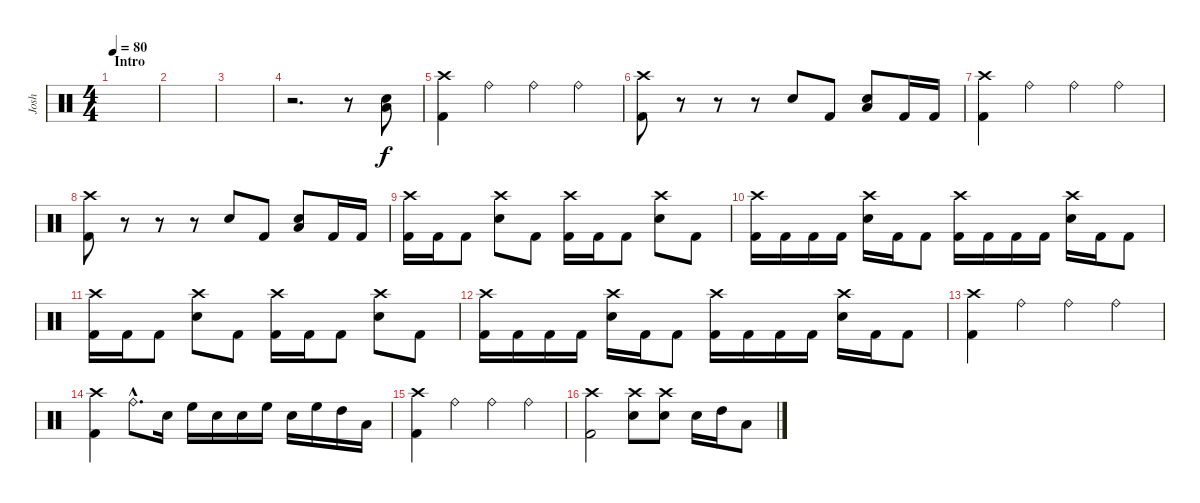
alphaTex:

\track ("Josh" "Josh") {instrument percussion}
\staff {score}
\articulation defaults
\ts (4 4)
\section ("" "Intro")
\tempo 80
\clef neutral
\ks c
|
|
|
r.2{d} r.8 ("Electric Snare (hit)" "Low Floor Tom (hit)").8 |
("Crash high (hit)" "Kick (hit) 2").4 "Ride (bell)".4 "Ride (bell)".4 "Ride (bell)".4 |
("Crash high (hit)" "Kick (hit) 2").8 r.8 r.8 r.8 "Electric Snare (hit)".8 "Kick (hit) 2".8 ("Electric Snare (hit)" "Low Floor Tom (hit)").8 "Kick (hit) 2".16 "Kick (hit) 2".16 |
("Crash high (hit)" "Kick (hit) 2").4 "Ride (bell)".4 "Ride (bell)".4 "Ride (bell)".4 |
("Crash high (hit)" "Kick (hit) 2").8 r.8 r.8 r.8 "Electric Snare (hit)".8 "Kick (hit) 2".8 ("Electric Snare (hit)" "Low Floor Tom (hit)").8 "Kick (hit) 2".16 "Kick (hit) 2".16 |
("Crash high (hit)" "Kick (hit) 2").16 "Kick (hit) 2".16 "Kick (hit) 2".8 ("Crash high (hit)" "Electric Snare (hit)").8 "Kick (hit) 2".8 ("Crash high (hit)" "Kick (hit) 2").16 "Kick (hit) 2".16 "Kick (hit) 2".8 ("Crash high (hit)" "Electric Snare (hit)").8 "Kick (hit) 2".8 |
("Crash high (hit)" "Kick (hit) 2").16 "Kick (hit) 2".16 "Kick (hit) 2".16 "Kick (hit) 2".16 ("Crash high (hit)" "Electric Snare (hit)").16 "Kick (hit) 2".16 "Kick (hit) 2".8 ("Crash high (hit)" "Kick (hit) 2").16 "Kick (hit) 2".16 "Kick (hit) 2".16 "Kick (hit) 2".16 ("Crash high (hit)" "Electric Snare (hit)").16 "Kick (hit) 2".16 "Kick (hit) 2".8 |
("Crash high (hit)" "Kick (hit) 2").16 "Kick (hit) 2".16 "Kick (hit) 2".8 ("Crash high (hit)" "Electric Snare (hit)").8 "Kick (hit) 2".8 ("Crash high (hit)" "Kick (hit) 2").16 "Kick (hit) 2".16 "Kick (hit) 2".8 ("Crash high (hit)" "Electric Snare (hit)").8 "Kick (hit) 2".8 |
("Crash high (hit)" "Kick (hit) 2").16 "Kick (hit) 2".16 "Kick (hit) 2".16 "Kick (hit) 2".16 ("Crash high (hit)" "Electric Snare (hit)").16 "Kick (hit) 2".16 "Kick (hit) 2".8 ("Crash high (hit)" "Kick (hit) 2").16 "Kick (hit) 2".16 "Kick (hit) 2".16 "Kick (hit) 2".16 ("Crash high (hit)" "Electric Snare (hit)").16 "Kick (hit) 2".16 "Kick (hit) 2".8 |
("Crash high (hit)" "Kick (hit) 2").4 "Ride (bell)".4 "Ride (bell)".4 "Ride (bell)".4 |
("Crash high (hit)" "Kick (hit) 2").4 "Ride (bell)"{hac}.8{d} "Electric Snare (hit)".16 "High Floor Tom (hit)".16 "Electric Snare (hit)".16 "Electric Snare (hit)".16 "High Floor Tom (hit)".16 "Electric Snare (hit)".16 "High Floor Tom (hit)".16 "High Tom (hit)".16 "Low Floor Tom (hit)".16 |
("Crash high (hit)" "Kick (hit) 2").4 "Ride (bell)".4 "Ride (bell)".4 "Ride (bell)".4 |
("Crash high (hit)" "Kick (hit) 2").2 ("Crash high (hit)" "Electric Snare (hit)").8 ("Crash high (hit)" "Electric Snare (hit)").8 "Electric Snare (hit)".16 "High Tom (hit)".16 "Low Floor Tom (hit)".8
